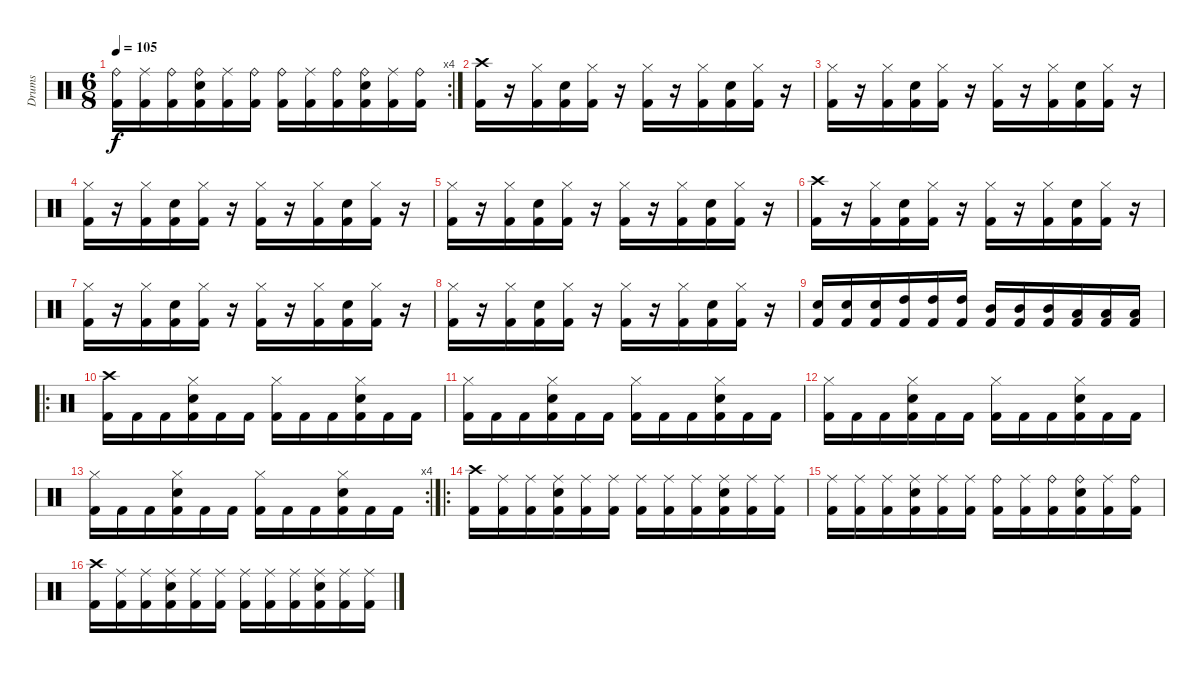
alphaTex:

\track ("Drums" "Drums") {instrument percussion}
\staff {score}
\articulation defaults
\rc 4
\ts (6 8)
\tempo 105
\clef neutral
\ks c
("Ride (bell)" "Kick (hit) 2").16{dy f} ("Ride (middle)" "Kick (hit) 2").16 ("Ride (bell)" "Kick (hit) 2").16 ("Ride (bell)" "Snare (hit) 2" "Kick (hit) 2").16 ("Ride (middle)" "Kick (hit) 2").16 ("Ride (bell)" "Kick (hit) 2").16 ("Ride (bell)" "Kick (hit) 2").16 ("Ride (middle)" "Kick (hit) 2").16 ("Ride (bell)" "Kick (hit) 2").16 ("Ride (bell)" "Snare (hit) 2" "Kick (hit) 2").16 ("Ride (middle)" "Kick (hit) 2").16 ("Ride (bell)" "Kick (hit) 2").16 |
("Crash high (hit)" "Kick (hit) 2").16 r.16 ("Hi-Hat (closed)" "Kick (hit) 2").16 ("Snare (hit) 2" "Kick (hit) 2").16 ("Hi-Hat (closed)" "Kick (hit) 2").16 r.16 ("Hi-Hat (closed)" "Kick (hit) 2").16 r.16 ("Hi-Hat (closed)" "Kick (hit) 2").16 ("Snare (hit) 2" "Kick (hit) 2").16 ("Hi-Hat (closed)" "Kick (hit) 2").16 r.16 |
("Hi-Hat (closed)" "Kick (hit) 2").16 r.16 ("Hi-Hat (closed)" "Kick (hit) 2").16 ("Snare (hit) 2" "Kick (hit) 2").16 ("Hi-Hat (closed)" "Kick (hit) 2").16 r.16 ("Hi-Hat (closed)" "Kick (hit) 2").16 r.16 ("Hi-Hat (closed)" "Kick (hit) 2").16 ("Snare (hit) 2" "Kick (hit) 2").16 ("Hi-Hat (closed)" "Kick (hit) 2").16 r.16 |
("Hi-Hat (closed)" "Kick (hit) 2").16 r.16 ("Hi-Hat (closed)" "Kick (hit) 2").16 ("Snare (hit) 2" "Kick (hit) 2").16 ("Hi-Hat (closed)" "Kick (hit) 2").16 r.16 ("Hi-Hat (closed)" "Kick (hit) 2").16 r.16 ("Hi-Hat (closed)" "Kick (hit) 2").16 ("Snare (hit) 2" "Kick (hit) 2").16 ("Hi-Hat (closed)" "Kick (hit) 2").16 r.16 |
("Hi-Hat (closed)" "Kick (hit) 2").16 r.16 ("Hi-Hat (closed)" "Kick (hit) 2").16 ("Snare (hit) 2" "Kick (hit) 2").16 ("Hi-Hat (closed)" "Kick (hit) 2").16 r.16 ("Hi-Hat (closed)" "Kick (hit) 2").16 r.16 ("Hi-Hat (closed)" "Kick (hit) 2").16 ("Snare (hit) 2" "Kick (hit) 2").16 ("Hi-Hat (closed)" "Kick (hit) 2").16 r.16 |
("Crash high (hit)" "Kick (hit) 2").16 r.16 ("Hi-Hat (closed)" "Kick (hit) 2").16 ("Snare (hit) 2" "Kick (hit) 2").16 ("Hi-Hat (closed)" "Kick (hit) 2").16 r.16 ("Hi-Hat (closed)" "Kick (hit) 2").16 r.16 ("Hi-Hat (closed)" "Kick (hit) 2").16 ("Snare (hit) 2" "Kick (hit) 2").16 ("Hi-Hat (closed)" "Kick (hit) 2").16 r.16 |
("Hi-Hat (closed)" "Kick (hit) 2").16 r.16 ("Hi-Hat (closed)" "Kick (hit) 2").16 ("Snare (hit) 2" "Kick (hit) 2").16 ("Hi-Hat (closed)" "Kick (hit) 2").16 r.16 ("Hi-Hat (closed)" "Kick (hit) 2").16 r.16 ("Hi-Hat (closed)" "Kick (hit) 2").16 ("Snare (hit) 2" "Kick (hit) 2").16 ("Hi-Hat (closed)" "Kick (hit) 2").16 r.16 |
("Hi-Hat (closed)" "Kick (hit) 2").16 r.16 ("Hi-Hat (closed)" "Kick (hit) 2").16 ("Snare (hit) 2" "Kick (hit) 2").16 ("Hi-Hat (closed)" "Kick (hit) 2").16 r.16 ("Hi-Hat (closed)" "Kick (hit) 2").16 r.16 ("Hi-Hat (closed)" "Kick (hit) 2").16 ("Snare (hit) 2" "Kick (hit) 2").16 ("Hi-Hat (closed)" "Kick (hit) 2").16 r.16 |
("Snare (hit) 2" "Kick (hit) 2").16 ("Snare (hit) 2" "Kick (hit) 2").16 ("Snare (hit) 2" "Kick (hit) 2").16 ("High Tom (hit)" "Kick (hit) 2").16 ("High Tom (hit)" "Kick (hit) 2").16 ("High Tom (hit)" "Kick (hit) 2").16 ("Mid Tom (hit)" "Kick (hit) 2").16 ("Mid Tom (hit)" "Kick (hit) 2").16 ("Mid Tom (hit)" "Kick (hit) 2").16 ("Low Tom (hit)" "Kick (hit) 2").16 ("Low Tom (hit)" "Kick (hit) 2").16 ("Low Tom (hit)" "Kick (hit) 2").16 |
\ro
("Crash high (hit)" "Kick (hit) 2").16 "Kick (hit) 2".16 "Kick (hit) 2".16 ("Hi-Hat (closed)" "Snare (hit) 2" "Kick (hit) 2").16 "Kick (hit) 2".16 "Kick (hit) 2".16 ("Hi-Hat (closed)" "Kick (hit) 2").16 "Kick (hit) 2".16 "Kick (hit) 2".16 ("Hi-Hat (closed)" "Snare (hit) 2" "Kick (hit) 2").16 "Kick (hit) 2".16 "Kick (hit) 2".16 |
("Hi-Hat (closed)" "Kick (hit) 2").16 "Kick (hit) 2".16 "Kick (hit) 2".16 ("Hi-Hat (closed)" "Snare (hit) 2" "Kick (hit) 2").16 "Kick (hit) 2".16 "Kick (hit) 2".16 ("Hi-Hat (closed)" "Kick (hit) 2").16 "Kick (hit) 2".16 "Kick (hit) 2".16 ("Hi-Hat (closed)" "Snare (hit) 2" "Kick (hit) 2").16 "Kick (hit) 2".16 "Kick (hit) 2".16 |
("Hi-Hat (closed)" "Kick (hit) 2").16 "Kick (hit) 2".16 "Kick (hit) 2".16 ("Hi-Hat (closed)" "Snare (hit) 2" "Kick (hit) 2").16 "Kick (hit) 2".16 "Kick (hit) 2".16 ("Hi-Hat (closed)" "Kick (hit) 2").16 "Kick (hit) 2".16 "Kick (hit) 2".16 ("Hi-Hat (closed)" "Snare (hit) 2" "Kick (hit) 2").16 "Kick (hit) 2".16 "Kick (hit) 2".16 |
\rc 4
("Hi-Hat (closed)" "Kick (hit) 2").16 "Kick (hit) 2".16 "Kick (hit) 2".16 ("Hi-Hat (closed)" "Snare (hit) 2" "Kick (hit) 2").16 "Kick (hit) 2".16 "Kick (hit) 2".16 ("Hi-Hat (closed)" "Kick (hit) 2").16 "Kick (hit) 2".16 "Kick (hit) 2".16 ("Hi-Hat (closed)" "Snare (hit) 2" "Kick (hit) 2").16 "Kick (hit) 2".16 "Kick (hit) 2".16 |
\ro
("Crash high (hit)" "Kick (hit) 2").16 ("Ride (middle)" "Kick (hit) 2").16 ("Ride (middle)" "Kick (hit) 2").16 ("Ride (middle)" "Snare (hit) 2" "Kick (hit) 2").16 ("Ride (middle)" "Kick (hit) 2").16 ("Ride (middle)" "Kick (hit) 2").16 ("Ride (middle)" "Kick (hit) 2").16 ("Ride (middle)" "Kick (hit) 2").16 ("Ride (middle)" "Kick (hit) 2").16 ("Ride (middle)" "Snare (hit) 2" "Kick (hit) 2").16 ("Ride (middle)" "Kick (hit) 2").16 ("Ride (middle)" "Kick (hit) 2").16 |
("Ride (middle)" "Kick (hit) 2").16 ("Ride (middle)" "Kick (hit) 2").16 ("Ride (middle)" "Kick (hit) 2").16 ("Ride (middle)" "Snare (hit) 2" "Kick (hit) 2").16 ("Ride (middle)" "Kick (hit) 2").16 ("Ride (middle)" "Kick (hit) 2").16 ("Ride (bell)" "Kick (hit) 2").16 ("Ride (middle)" "Kick (hit) 2").16 ("Ride (bell)" "Kick (hit) 2").16 ("Ride (bell)" "Snare (hit) 2" "Kick (hit) 2").16 ("Ride (middle)" "Kick (hit) 2").16 ("Ride (bell)" "Kick (hit) 2").16 |
("Crash high (hit)" "Kick (hit) 2").16 ("Ride (middle)" "Kick (hit) 2").16 ("Ride (middle)" "Kick (hit) 2").16 ("Ride (middle)" "Snare (hit) 2" "Kick (hit) 2").16 ("Ride (middle)" "Kick (hit) 2").16 ("Ride (middle)" "Kick (hit) 2").16 ("Ride (middle)" "Kick (hit) 2").16 ("Ride (middle)" "Kick (hit) 2").16 ("Ride (middle)" "Kick (hit) 2").16 ("Ride (middle)" "Snare (hit) 2" "Kick (hit) 2").16 ("Ride (middle)" "Kick (hit) 2").16 ("Ride (middle)" "Kick (hit) 2").16
